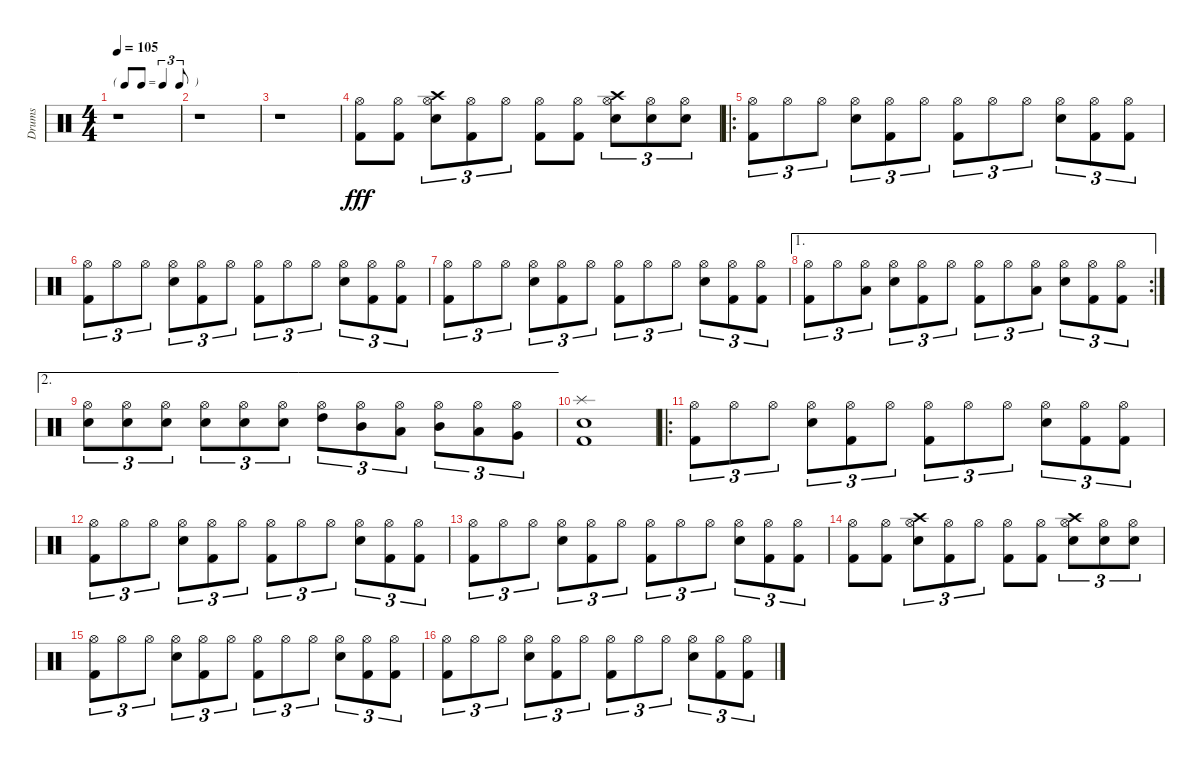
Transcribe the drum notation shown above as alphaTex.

\track ("Drums" "Drums") {instrument percussion}
\staff {score}
\articulation defaults
\ts (4 4)
\tf triplet8th
\tempo 105
\clef neutral
\ks c
r.1{dy fff} |
r.1 |
r.1 |
("Hi-Hat (open)" "Kick (hit) 2").8 ("Hi-Hat (open)" "Kick (hit) 2").8 ("Hi-Hat (open)" "Snare (hit) 2" "Crash high (hit)").8{tu (3 2)} ("Hi-Hat (open)" "Kick (hit) 2").8{tu (3 2)} "Hi-Hat (open)".8{tu (3 2)} ("Hi-Hat (open)" "Kick (hit) 2").8 ("Hi-Hat (open)" "Kick (hit) 2").8 ("Hi-Hat (open)" "Snare (hit) 2" "Crash high (hit)").8{tu (3 2)} ("Hi-Hat (open)" "Snare (hit) 2").8{tu (3 2)} ("Hi-Hat (open)" "Snare (hit) 2").8{tu (3 2)} |
\ro
("Hi-Hat (open)" "Kick (hit) 2").8{tu (3 2)} "Hi-Hat (open)".8{tu (3 2)} "Hi-Hat (open)".8{tu (3 2)} ("Hi-Hat (open)" "Snare (hit) 2").8{tu (3 2)} ("Hi-Hat (open)" "Kick (hit) 2").8{tu (3 2)} "Hi-Hat (open)".8{tu (3 2)} ("Hi-Hat (open)" "Kick (hit) 2").8{tu (3 2)} "Hi-Hat (open)".8{tu (3 2)} "Hi-Hat (open)".8{tu (3 2)} ("Hi-Hat (open)" "Snare (hit) 2").8{tu (3 2)} ("Hi-Hat (open)" "Kick (hit) 2").8{tu (3 2)} ("Hi-Hat (open)" "Kick (hit) 2").8{tu (3 2)} |
("Hi-Hat (open)" "Kick (hit) 2").8{tu (3 2)} "Hi-Hat (open)".8{tu (3 2)} "Hi-Hat (open)".8{tu (3 2)} ("Hi-Hat (open)" "Snare (hit) 2").8{tu (3 2)} ("Hi-Hat (open)" "Kick (hit) 2").8{tu (3 2)} "Hi-Hat (open)".8{tu (3 2)} ("Hi-Hat (open)" "Kick (hit) 2").8{tu (3 2)} "Hi-Hat (open)".8{tu (3 2)} "Hi-Hat (open)".8{tu (3 2)} ("Hi-Hat (open)" "Snare (hit) 2").8{tu (3 2)} ("Hi-Hat (open)" "Kick (hit) 2").8{tu (3 2)} ("Hi-Hat (open)" "Kick (hit) 2").8{tu (3 2)} |
("Hi-Hat (open)" "Kick (hit) 2").8{tu (3 2)} "Hi-Hat (open)".8{tu (3 2)} "Hi-Hat (open)".8{tu (3 2)} ("Hi-Hat (open)" "Snare (hit) 2").8{tu (3 2)} ("Hi-Hat (open)" "Kick (hit) 2").8{tu (3 2)} "Hi-Hat (open)".8{tu (3 2)} ("Hi-Hat (open)" "Kick (hit) 2").8{tu (3 2)} "Hi-Hat (open)".8{tu (3 2)} "Hi-Hat (open)".8{tu (3 2)} ("Hi-Hat (open)" "Snare (hit) 2").8{tu (3 2)} ("Hi-Hat (open)" "Kick (hit) 2").8{tu (3 2)} ("Hi-Hat (open)" "Kick (hit) 2").8{tu (3 2)} |
\ae 1
\rc 2
("Hi-Hat (open)" "Kick (hit) 2").8{tu (3 2)} "Hi-Hat (open)".8{tu (3 2)} ("Hi-Hat (open)" "Low Tom (hit)").8{tu (3 2)} ("Hi-Hat (open)" "Snare (hit) 2").8{tu (3 2)} ("Hi-Hat (open)" "Kick (hit) 2").8{tu (3 2)} "Hi-Hat (open)".8{tu (3 2)} ("Hi-Hat (open)" "Kick (hit) 2").8{tu (3 2)} "Hi-Hat (open)".8{tu (3 2)} ("Hi-Hat (open)" "Low Tom (hit)").8{tu (3 2)} ("Hi-Hat (open)" "Snare (hit) 2").8{tu (3 2)} ("Hi-Hat (open)" "Kick (hit) 2").8{tu (3 2)} ("Hi-Hat (open)" "Kick (hit) 2").8{tu (3 2)} |
\ae 2
("Hi-Hat (open)" "Snare (hit) 2").8{tu (3 2)} ("Hi-Hat (open)" "Snare (hit) 2").8{tu (3 2)} ("Hi-Hat (open)" "Snare (hit) 2").8{tu (3 2)} ("Hi-Hat (open)" "Snare (hit) 2").8{tu (3 2)} ("Hi-Hat (open)" "Snare (hit) 2").8{tu (3 2)} ("Hi-Hat (open)" "Snare (hit) 2").8{tu (3 2)} ("Hi-Hat (open)" "High Tom (hit)").8{tu (3 2)} ("Hi-Hat (open)" "Mid Tom (hit)").8{tu (3 2)} ("Hi-Hat (open)" "Low Tom (hit)").8{tu (3 2)} ("Hi-Hat (open)" "Mid Tom (hit)").8{tu (3 2)} ("Hi-Hat (open)" "Low Tom (hit)").8{tu (3 2)} ("Hi-Hat (open)" "Very Low Tom (hit)").8{tu (3 2)} |
("Kick (hit) 2" "Splash (hit)" "Snare (hit) 2").1 |
\ro
("Hi-Hat (open)" "Kick (hit) 2").8{tu (3 2)} "Hi-Hat (open)".8{tu (3 2)} "Hi-Hat (open)".8{tu (3 2)} ("Hi-Hat (open)" "Snare (hit) 2").8{tu (3 2)} ("Hi-Hat (open)" "Kick (hit) 2").8{tu (3 2)} "Hi-Hat (open)".8{tu (3 2)} ("Hi-Hat (open)" "Kick (hit) 2").8{tu (3 2)} "Hi-Hat (open)".8{tu (3 2)} "Hi-Hat (open)".8{tu (3 2)} ("Hi-Hat (open)" "Snare (hit) 2").8{tu (3 2)} ("Hi-Hat (open)" "Kick (hit) 2").8{tu (3 2)} ("Hi-Hat (open)" "Kick (hit) 2").8{tu (3 2)} |
("Hi-Hat (open)" "Kick (hit) 2").8{tu (3 2)} "Hi-Hat (open)".8{tu (3 2)} "Hi-Hat (open)".8{tu (3 2)} ("Hi-Hat (open)" "Snare (hit) 2").8{tu (3 2)} ("Hi-Hat (open)" "Kick (hit) 2").8{tu (3 2)} "Hi-Hat (open)".8{tu (3 2)} ("Hi-Hat (open)" "Kick (hit) 2").8{tu (3 2)} "Hi-Hat (open)".8{tu (3 2)} "Hi-Hat (open)".8{tu (3 2)} ("Hi-Hat (open)" "Snare (hit) 2").8{tu (3 2)} ("Hi-Hat (open)" "Kick (hit) 2").8{tu (3 2)} ("Hi-Hat (open)" "Kick (hit) 2").8{tu (3 2)} |
("Hi-Hat (open)" "Kick (hit) 2").8{tu (3 2)} "Hi-Hat (open)".8{tu (3 2)} "Hi-Hat (open)".8{tu (3 2)} ("Hi-Hat (open)" "Snare (hit) 2").8{tu (3 2)} ("Hi-Hat (open)" "Kick (hit) 2").8{tu (3 2)} "Hi-Hat (open)".8{tu (3 2)} ("Hi-Hat (open)" "Kick (hit) 2").8{tu (3 2)} "Hi-Hat (open)".8{tu (3 2)} "Hi-Hat (open)".8{tu (3 2)} ("Hi-Hat (open)" "Snare (hit) 2").8{tu (3 2)} ("Hi-Hat (open)" "Kick (hit) 2").8{tu (3 2)} ("Hi-Hat (open)" "Kick (hit) 2").8{tu (3 2)} |
("Hi-Hat (open)" "Kick (hit) 2").8 ("Hi-Hat (open)" "Kick (hit) 2").8 ("Hi-Hat (open)" "Snare (hit) 2" "Crash high (hit)").8{tu (3 2)} ("Hi-Hat (open)" "Kick (hit) 2").8{tu (3 2)} "Hi-Hat (open)".8{tu (3 2)} ("Hi-Hat (open)" "Kick (hit) 2").8 ("Hi-Hat (open)" "Kick (hit) 2").8 ("Hi-Hat (open)" "Snare (hit) 2" "Crash high (hit)").8{tu (3 2)} ("Hi-Hat (open)" "Snare (hit) 2").8{tu (3 2)} ("Hi-Hat (open)" "Snare (hit) 2").8{tu (3 2)} |
("Hi-Hat (open)" "Kick (hit) 2").8{tu (3 2)} "Hi-Hat (open)".8{tu (3 2)} "Hi-Hat (open)".8{tu (3 2)} ("Hi-Hat (open)" "Snare (hit) 2").8{tu (3 2)} ("Hi-Hat (open)" "Kick (hit) 2").8{tu (3 2)} "Hi-Hat (open)".8{tu (3 2)} ("Hi-Hat (open)" "Kick (hit) 2").8{tu (3 2)} "Hi-Hat (open)".8{tu (3 2)} "Hi-Hat (open)".8{tu (3 2)} ("Hi-Hat (open)" "Snare (hit) 2").8{tu (3 2)} ("Hi-Hat (open)" "Kick (hit) 2").8{tu (3 2)} ("Hi-Hat (open)" "Kick (hit) 2").8{tu (3 2)} |
("Hi-Hat (open)" "Kick (hit) 2").8{tu (3 2)} "Hi-Hat (open)".8{tu (3 2)} "Hi-Hat (open)".8{tu (3 2)} ("Hi-Hat (open)" "Snare (hit) 2").8{tu (3 2)} ("Hi-Hat (open)" "Kick (hit) 2").8{tu (3 2)} "Hi-Hat (open)".8{tu (3 2)} ("Hi-Hat (open)" "Kick (hit) 2").8{tu (3 2)} "Hi-Hat (open)".8{tu (3 2)} "Hi-Hat (open)".8{tu (3 2)} ("Hi-Hat (open)" "Snare (hit) 2").8{tu (3 2)} ("Hi-Hat (open)" "Kick (hit) 2").8{tu (3 2)} ("Hi-Hat (open)" "Kick (hit) 2").8{tu (3 2)}
